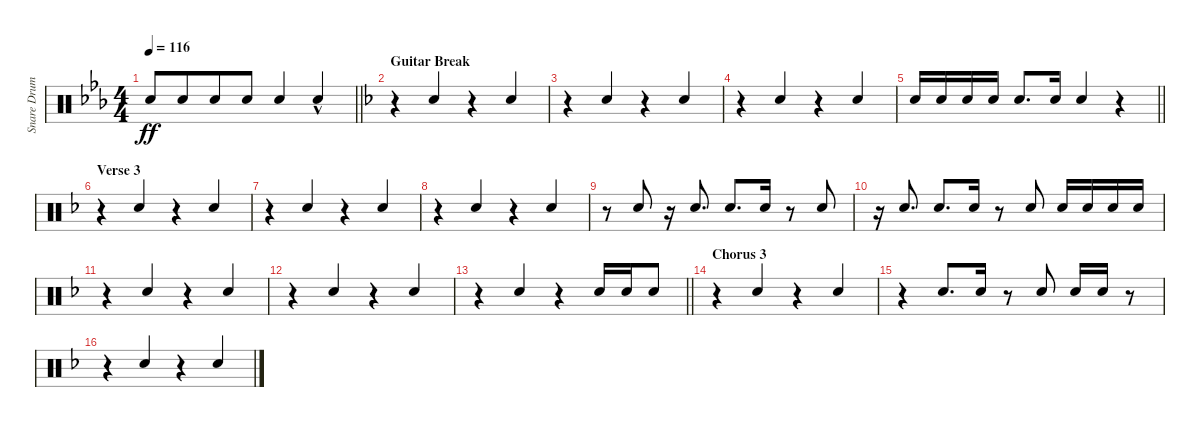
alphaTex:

\track ("Snare Drum" "Snare Drum") {instrument percussion}
\staff {score}
\articulation defaults
\ts (4 4)
\tempo 116
\clef neutral
\barLineRight lightlight
\ks eb "Electric Snare (hit)".8{dy ff beam Up} "Electric Snare (hit)".8{beam Up beam merge} "Electric Snare (hit)".8{beam Up} "Electric Snare (hit)".8{beam Up} "Electric Snare (hit)".4{beam Up} "Electric Snare (hit)"{hac}.4{beam Up}
|
\section ("" "Guitar Break")
\ks f
r.4{beam merge} "Electric Snare (hit)".4{beam Up} r.4{beam merge} "Electric Snare (hit)".4{beam Up} |
r.4{beam merge} "Electric Snare (hit)".4{beam Up} r.4 "Electric Snare (hit)".4{beam Up} |
r.4{beam merge} "Electric Snare (hit)".4{beam Up} r.4{beam merge} "Electric Snare (hit)".4{beam Up} |
\barLineRight lightlight "Electric Snare (hit)".16{beam Up} "Electric Snare (hit)".16{beam Up} "Electric Snare (hit)".16{beam Up} "Electric Snare (hit)".16{beam Up} "Electric Snare (hit)".8{d beam Up} "Electric Snare (hit)".16{beam Up} "Electric Snare (hit)".4{beam Up}
r.4 |
\section ("" "Verse 3")
r.4{beam merge} "Electric Snare (hit)".4{beam Up} r.4{beam merge} "Electric Snare (hit)".4{beam Up} |
r.4{beam merge} "Electric Snare (hit)".4{beam Up} r.4{beam merge} "Electric Snare (hit)".4{beam Up} |
r.4{beam merge} "Electric Snare (hit)".4{beam Up} r.4{beam merge} "Electric Snare (hit)".4{beam Up} |
r.8{beam Up beam merge} "Electric Snare (hit)".8{beam Up} r.16 "Electric Snare (hit)".8{d beam Up} "Electric Snare (hit)".8{d beam Up} "Electric Snare (hit)".16{beam Up} r.8 "Electric Snare (hit)".8{beam Up} |
r.16 "Electric Snare (hit)".8{d beam Up} "Electric Snare (hit)".8{d beam Up} "Electric Snare (hit)".16{beam Up} r.8 "Electric Snare (hit)".8{beam Up} "Electric Snare (hit)".16{beam Up} "Electric Snare (hit)".16{beam Up} "Electric Snare (hit)".16{beam Up} "Electric Snare (hit)".16{beam Up} |
r.4{beam merge} "Electric Snare (hit)".4{beam Up} r.4{beam merge} "Electric Snare (hit)".4{beam Up} |
r.4{beam merge} "Electric Snare (hit)".4{beam Up} r.4{beam merge} "Electric Snare (hit)".4{beam Up} |
\barLineRight lightlight
r.4{beam merge} "Electric Snare (hit)".4{beam Up} r.4 "Electric Snare (hit)".16{beam Up} "Electric Snare (hit)".16{beam Up} "Electric Snare (hit)".8{beam Up} |
\section ("" "Chorus 3")
r.4{beam merge} "Electric Snare (hit)".4{beam Up} r.4{beam merge} "Electric Snare (hit)".4{beam Up} |
r.4 "Electric Snare (hit)".8{d beam Up} "Electric Snare (hit)".16{beam Up} r.8 "Electric Snare (hit)".8{beam Up} "Electric Snare (hit)".16{beam Up} "Electric Snare (hit)".16{beam Up} r.8 |
r.4{beam merge} "Electric Snare (hit)".4{beam Up} r.4{beam merge} "Electric Snare (hit)".4{beam Up}
